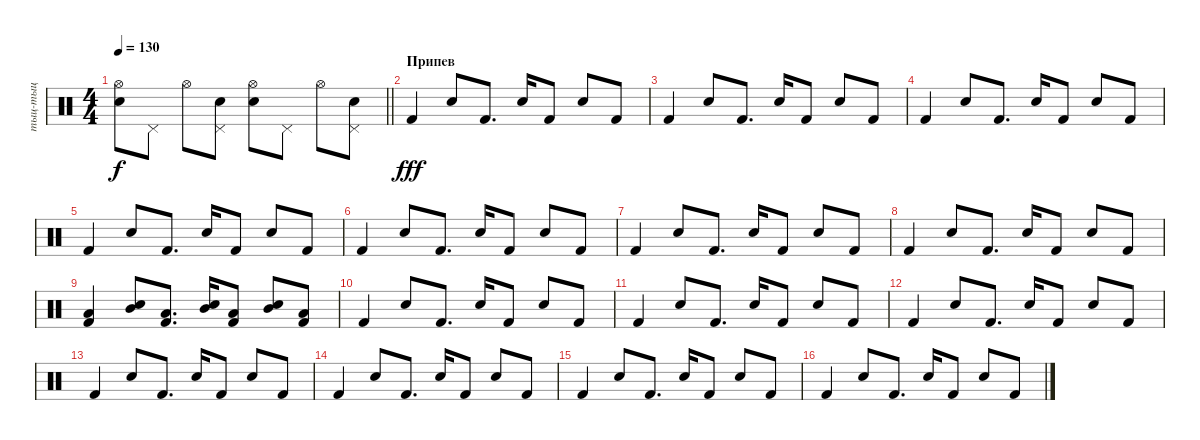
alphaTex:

\track ("тыц-тыц" "тыц-тыц") {instrument percussion}
\staff {score}
\articulation defaults
\ts (4 4)
\tempo 130
\clef neutral
\barLineRight lightlight
\ks c
("Hi-Hat (open)" "Snare (hit) 2").8{dy f} "Pedal Hi-Hat (hit)".8 "Hi-Hat (open)".8 ("Pedal Hi-Hat (hit)" "Snare (hit) 2").8 ("Hi-Hat (open)" "Snare (hit) 2").8 "Pedal Hi-Hat (hit)".8 "Hi-Hat (open)".8 ("Pedal Hi-Hat (hit)" "Snare (hit) 2").8 |
\section ("" "Припев")
"Kick (hit) 2".4{dy fff} "Snare (hit) 2".8 "Kick (hit) 2".8{d} "Snare (hit) 2".16 "Kick (hit) 2".8 "Snare (hit) 2".8 "Kick (hit) 2".8 |
"Kick (hit) 2".4 "Snare (hit) 2".8 "Kick (hit) 2".8{d} "Snare (hit) 2".16 "Kick (hit) 2".8 "Snare (hit) 2".8 "Kick (hit) 2".8 |
"Kick (hit) 2".4 "Snare (hit) 2".8 "Kick (hit) 2".8{d} "Snare (hit) 2".16 "Kick (hit) 2".8 "Snare (hit) 2".8 "Kick (hit) 2".8 |
"Kick (hit) 2".4 "Snare (hit) 2".8 "Kick (hit) 2".8{d} "Snare (hit) 2".16 "Kick (hit) 2".8 "Snare (hit) 2".8 "Kick (hit) 2".8 |
"Kick (hit) 2".4 "Snare (hit) 2".8 "Kick (hit) 2".8{d} "Snare (hit) 2".16 "Kick (hit) 2".8 "Snare (hit) 2".8 "Kick (hit) 2".8 |
"Kick (hit) 2".4 "Snare (hit) 2".8 "Kick (hit) 2".8{d} "Snare (hit) 2".16 "Kick (hit) 2".8 "Snare (hit) 2".8 "Kick (hit) 2".8 |
"Kick (hit) 2".4 "Snare (hit) 2".8 "Kick (hit) 2".8{d} "Snare (hit) 2".16 "Kick (hit) 2".8 "Snare (hit) 2".8 "Kick (hit) 2".8 |
("Low Tom (hit)" "Kick (hit) 2").4 ("Mid Tom (hit)" "Snare (hit) 2").8 ("Low Tom (hit)" "Kick (hit) 2").8{d} ("Mid Tom (hit)" "Snare (hit) 2").16 ("Low Tom (hit)" "Kick (hit) 2").8 ("Mid Tom (hit)" "Snare (hit) 2").8 ("Low Tom (hit)" "Kick (hit) 2").8 |
"Kick (hit) 2".4 "Snare (hit) 2".8 "Kick (hit) 2".8{d} "Snare (hit) 2".16 "Kick (hit) 2".8 "Snare (hit) 2".8 "Kick (hit) 2".8 |
"Kick (hit) 2".4 "Snare (hit) 2".8 "Kick (hit) 2".8{d} "Snare (hit) 2".16 "Kick (hit) 2".8 "Snare (hit) 2".8 "Kick (hit) 2".8 |
"Kick (hit) 2".4 "Snare (hit) 2".8 "Kick (hit) 2".8{d} "Snare (hit) 2".16 "Kick (hit) 2".8 "Snare (hit) 2".8 "Kick (hit) 2".8 |
"Kick (hit) 2".4 "Snare (hit) 2".8 "Kick (hit) 2".8{d} "Snare (hit) 2".16 "Kick (hit) 2".8 "Snare (hit) 2".8 "Kick (hit) 2".8 |
"Kick (hit) 2".4 "Snare (hit) 2".8 "Kick (hit) 2".8{d} "Snare (hit) 2".16 "Kick (hit) 2".8 "Snare (hit) 2".8 "Kick (hit) 2".8 |
"Kick (hit) 2".4 "Snare (hit) 2".8 "Kick (hit) 2".8{d} "Snare (hit) 2".16 "Kick (hit) 2".8 "Snare (hit) 2".8 "Kick (hit) 2".8 |
"Kick (hit) 2".4 "Snare (hit) 2".8 "Kick (hit) 2".8{d} "Snare (hit) 2".16 "Kick (hit) 2".8 "Snare (hit) 2".8 "Kick (hit) 2".8
